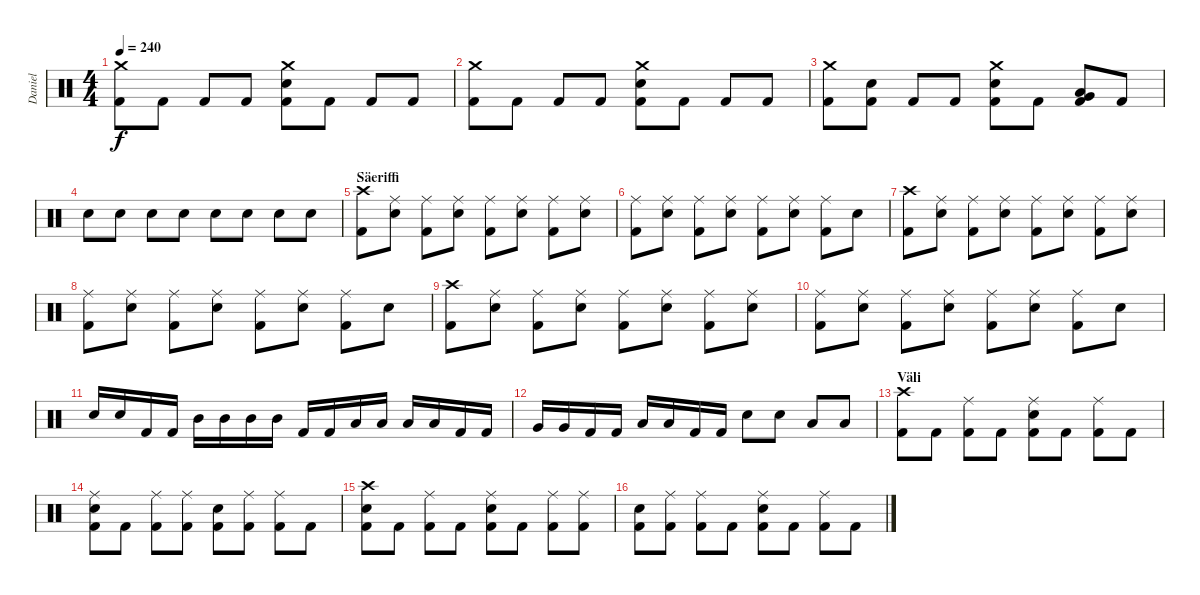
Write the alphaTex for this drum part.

\track ("Daniel" "Daniel") {instrument percussion}
\staff {score}
\articulation defaults
\ts (4 4)
\tempo 240
\clef neutral
\ks c
("Crash medium (hit)" "Kick (hit) 2").8{dy f} "Kick (hit) 2".8 "Kick (hit) 2".8 "Kick (hit) 2".8 ("Crash medium (hit)" "Electric Snare (hit)" "Kick (hit) 2").8 "Kick (hit) 2".8 "Kick (hit) 2".8 "Kick (hit) 2".8 |
("Crash medium (hit)" "Kick (hit) 2").8 "Kick (hit) 2".8 "Kick (hit) 2".8 "Kick (hit) 2".8 ("Crash medium (hit)" "Electric Snare (hit)" "Kick (hit) 2").8 "Kick (hit) 2".8 "Kick (hit) 2".8 "Kick (hit) 2".8 |
("Crash medium (hit)" "Kick (hit) 2").8 ("Electric Snare (hit)" "Kick (hit) 2").8 "Kick (hit) 2".8 "Kick (hit) 2".8 ("Crash medium (hit)" "Electric Snare (hit)" "Kick (hit) 2").8 "Kick (hit) 2".8 ("Very Low Tom (hit)" "Low Tom (hit)" "Kick (hit) 2").8 "Kick (hit) 2".8 |
"Electric Snare (hit)".8 "Electric Snare (hit)".8 "Electric Snare (hit)".8 "Electric Snare (hit)".8 "Electric Snare (hit)".8 "Electric Snare (hit)".8 "Electric Snare (hit)".8 "Electric Snare (hit)".8 |
\section ("" "Säeriffi")
("Crash high (hit)" "Kick (hit) 2").8 ("Ride (middle)" "Electric Snare (hit)").8 ("Ride (middle)" "Kick (hit) 2").8 ("Ride (middle)" "Electric Snare (hit)").8 ("Ride (middle)" "Kick (hit) 2").8 ("Ride (middle)" "Electric Snare (hit)").8 ("Ride (middle)" "Kick (hit) 2").8 ("Ride (middle)" "Electric Snare (hit)").8 |
("Ride (middle)" "Kick (hit) 2").8 ("Ride (middle)" "Electric Snare (hit)").8 ("Ride (middle)" "Kick (hit) 2").8 ("Ride (middle)" "Electric Snare (hit)").8 ("Ride (middle)" "Kick (hit) 2").8 ("Ride (middle)" "Electric Snare (hit)").8 ("Ride (middle)" "Kick (hit) 2").8 "Electric Snare (hit)".8 |
("Crash high (hit)" "Kick (hit) 2").8 ("Ride (middle)" "Electric Snare (hit)").8 ("Ride (middle)" "Kick (hit) 2").8 ("Ride (middle)" "Electric Snare (hit)").8 ("Ride (middle)" "Kick (hit) 2").8 ("Ride (middle)" "Electric Snare (hit)").8 ("Ride (middle)" "Kick (hit) 2").8 ("Ride (middle)" "Electric Snare (hit)").8 |
("Ride (middle)" "Kick (hit) 2").8 ("Ride (middle)" "Electric Snare (hit)").8 ("Ride (middle)" "Kick (hit) 2").8 ("Ride (middle)" "Electric Snare (hit)").8 ("Ride (middle)" "Kick (hit) 2").8 ("Ride (middle)" "Electric Snare (hit)").8 ("Ride (middle)" "Kick (hit) 2").8 "Electric Snare (hit)".8 |
("Crash high (hit)" "Kick (hit) 2").8 ("Ride (middle)" "Electric Snare (hit)").8 ("Ride (middle)" "Kick (hit) 2").8 ("Ride (middle)" "Electric Snare (hit)").8 ("Ride (middle)" "Kick (hit) 2").8 ("Ride (middle)" "Electric Snare (hit)").8 ("Ride (middle)" "Kick (hit) 2").8 ("Ride (middle)" "Electric Snare (hit)").8 |
("Ride (middle)" "Kick (hit) 2").8 ("Ride (middle)" "Electric Snare (hit)").8 ("Ride (middle)" "Kick (hit) 2").8 ("Ride (middle)" "Electric Snare (hit)").8 ("Ride (middle)" "Kick (hit) 2").8 ("Ride (middle)" "Electric Snare (hit)").8 ("Ride (middle)" "Kick (hit) 2").8 "Electric Snare (hit)".8 |
"Electric Snare (hit)".16 "Electric Snare (hit)".16 "Kick (hit) 2".16 "Kick (hit) 2".16 "Mid Tom (hit)".16 "Mid Tom (hit)".16 "Mid Tom (hit)".16 "Mid Tom (hit)".16 "Kick (hit) 2".16 "Kick (hit) 2".16 "Low Tom (hit)".16 "Low Tom (hit)".16 "Low Tom (hit)".16 "Low Tom (hit)".16 "Kick (hit) 2".16 "Kick (hit) 2".16 |
"Very Low Tom (hit)".16 "Very Low Tom (hit)".16 "Kick (hit) 2".16 "Kick (hit) 2".16 "Low Floor Tom (hit)".16 "Low Floor Tom (hit)".16 "Kick (hit) 2".16 "Kick (hit) 2".16 "Electric Snare (hit)".8 "Electric Snare (hit)".8 "Low Tom (hit)".8 "Low Tom (hit)".8 |
\section ("" "Väli")
("Crash high (hit)" "Kick (hit) 2").8 "Kick (hit) 2".8 ("Ride (middle)" "Kick (hit) 2").8 "Kick (hit) 2".8 ("Ride (middle)" "Electric Snare (hit)" "Kick (hit) 2").8 "Kick (hit) 2".8 ("Ride (middle)" "Kick (hit) 2").8 "Kick (hit) 2".8 |
("Ride (middle)" "Electric Snare (hit)" "Kick (hit) 2").8 "Kick (hit) 2".8 ("Ride (middle)" "Kick (hit) 2").8 ("Ride (middle)" "Kick (hit) 2").8 ("Electric Snare (hit)" "Kick (hit) 2").8 ("Ride (middle)" "Kick (hit) 2").8 ("Ride (middle)" "Kick (hit) 2").8 "Kick (hit) 2".8 |
("Crash high (hit)" "Electric Snare (hit)" "Kick (hit) 2").8 "Kick (hit) 2".8 ("Ride (middle)" "Kick (hit) 2").8 "Kick (hit) 2".8 ("Ride (middle)" "Electric Snare (hit)" "Kick (hit) 2").8 "Kick (hit) 2".8 ("Ride (middle)" "Kick (hit) 2").8 ("Ride (middle)" "Kick (hit) 2").8 |
("Electric Snare (hit)" "Kick (hit) 2").8 ("Ride (middle)" "Kick (hit) 2").8 ("Ride (middle)" "Kick (hit) 2").8 "Kick (hit) 2".8 ("Ride (middle)" "Electric Snare (hit)" "Kick (hit) 2").8 "Kick (hit) 2".8 ("Ride (middle)" "Kick (hit) 2").8 "Kick (hit) 2".8
